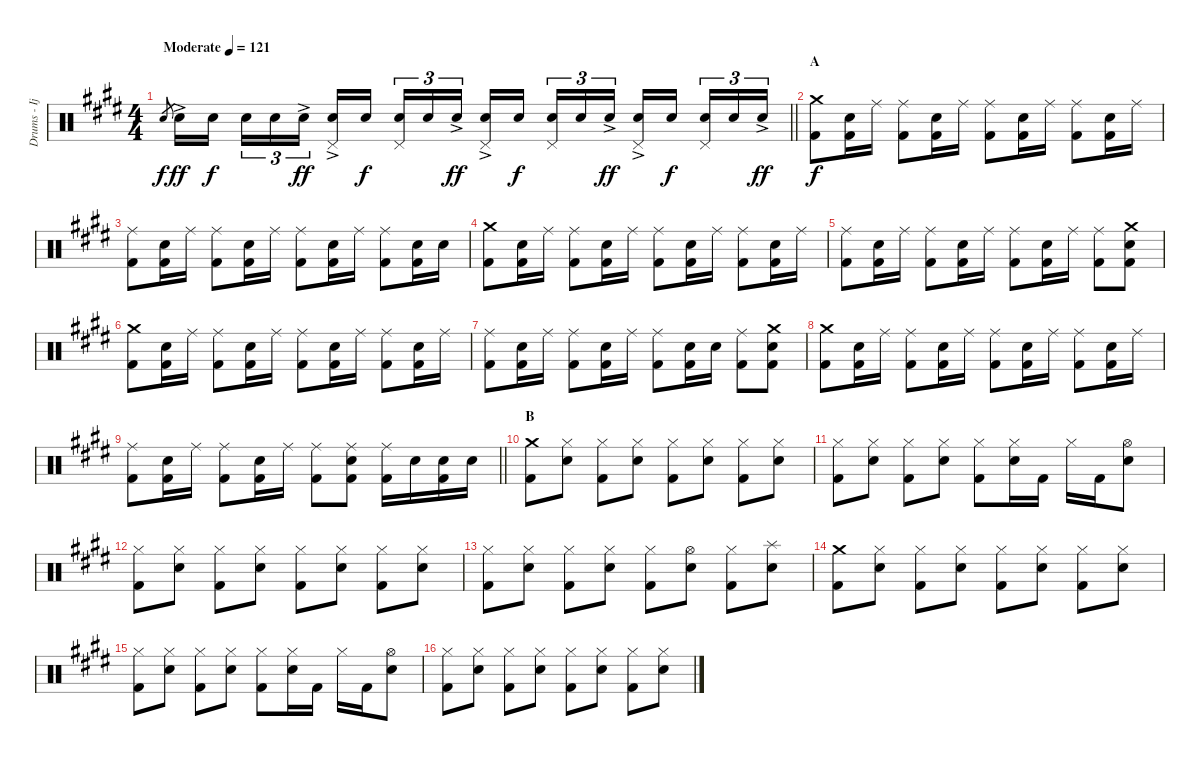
\track ("Drums - Ijichi Kiyoshi" "Drums - Ij") {instrument percussion}
\staff {score}
\articulation defaults
\ts (4 4)
\tempo (121 "Moderate")
\clef neutral
\barLineRight lightlight
\ks e "Electric Snare (hit)".8{gr dy f} "Electric Snare (hit)"{ac}.16{dy ff} "Electric Snare (hit)".16{dy f beam splitsecondary} "Electric Snare (hit)".16{tu (3 2)} "Electric Snare (hit)".16{tu (3 2)} "Electric Snare (hit)"{ac}.16{tu (3 2) dy ff}
("Electric Snare (hit)"{ac} "Pedal Hi-Hat (hit)").16 "Electric Snare (hit)".16{dy f beam splitsecondary} ("Electric Snare (hit)" "Pedal Hi-Hat (hit)").16{tu (3 2)} "Electric Snare (hit)".16{tu (3 2)} "Electric Snare (hit)"{ac}.16{tu (3 2) dy ff} ("Electric Snare (hit)"{ac} "Pedal Hi-Hat (hit)").16 "Electric Snare (hit)".16{dy f beam splitsecondary} ("Electric Snare (hit)" "Pedal Hi-Hat (hit)").16{tu (3 2)} "Electric Snare (hit)".16{tu (3 2)} "Electric Snare (hit)"{ac}.16{tu (3 2) dy ff} ("Electric Snare (hit)"{ac} "Pedal Hi-Hat (hit)").16 "Electric Snare (hit)".16{dy f beam splitsecondary} ("Electric Snare (hit)" "Pedal Hi-Hat (hit)").16{tu (3 2)} "Electric Snare (hit)".16{tu (3 2)} "Electric Snare (hit)"{ac}.16{tu (3 2) dy ff} |
\section ("" "A")
("Crash medium (hit)" "Kick (hit) 2").8{dy f} ("Electric Snare (hit)" "Kick (hit) 2").16 "Ride (middle)".16 ("Ride (middle)" "Kick (hit) 2").8 ("Electric Snare (hit)" "Kick (hit) 2").16 "Ride (middle)".16 ("Ride (middle)" "Kick (hit) 2").8 ("Electric Snare (hit)" "Kick (hit) 2").16 "Ride (middle)".16 ("Ride (middle)" "Kick (hit) 2").8 ("Electric Snare (hit)" "Kick (hit) 2").16 "Ride (middle)".16 |
("Ride (middle)" "Kick (hit) 2").8 ("Electric Snare (hit)" "Kick (hit) 2").16 "Ride (middle)".16 ("Ride (middle)" "Kick (hit) 2").8 ("Electric Snare (hit)" "Kick (hit) 2").16 "Ride (middle)".16 ("Ride (middle)" "Kick (hit) 2").8 ("Electric Snare (hit)" "Kick (hit) 2").16 "Ride (middle)".16 ("Ride (middle)" "Kick (hit) 2").8 ("Electric Snare (hit)" "Kick (hit) 2").16 "Electric Snare (hit)".16 |
("Crash medium (hit)" "Kick (hit) 2").8 ("Electric Snare (hit)" "Kick (hit) 2").16 "Ride (middle)".16 ("Ride (middle)" "Kick (hit) 2").8 ("Electric Snare (hit)" "Kick (hit) 2").16 "Ride (middle)".16 ("Ride (middle)" "Kick (hit) 2").8 ("Electric Snare (hit)" "Kick (hit) 2").16 "Ride (middle)".16 ("Ride (middle)" "Kick (hit) 2").8 ("Electric Snare (hit)" "Kick (hit) 2").16 "Ride (middle)".16 |
("Ride (middle)" "Kick (hit) 2").8 ("Electric Snare (hit)" "Kick (hit) 2").16 "Ride (middle)".16 ("Ride (middle)" "Kick (hit) 2").8 ("Electric Snare (hit)" "Kick (hit) 2").16 "Ride (middle)".16 ("Ride (middle)" "Kick (hit) 2").8 ("Electric Snare (hit)" "Kick (hit) 2").16 "Ride (middle)".16 ("Ride (middle)" "Kick (hit) 2").8 ("Crash medium (hit)" "Electric Snare (hit)" "Kick (hit) 2").8 |
("Crash medium (hit)" "Kick (hit) 2").8 ("Electric Snare (hit)" "Kick (hit) 2").16 "Ride (middle)".16 ("Ride (middle)" "Kick (hit) 2").8 ("Electric Snare (hit)" "Kick (hit) 2").16 "Ride (middle)".16 ("Ride (middle)" "Kick (hit) 2").8 ("Electric Snare (hit)" "Kick (hit) 2").16 "Ride (middle)".16 ("Ride (middle)" "Kick (hit) 2").8 ("Electric Snare (hit)" "Kick (hit) 2").16 "Ride (middle)".16 |
("Ride (middle)" "Kick (hit) 2").8 ("Electric Snare (hit)" "Kick (hit) 2").16 "Ride (middle)".16 ("Ride (middle)" "Kick (hit) 2").8 ("Electric Snare (hit)" "Kick (hit) 2").16 "Ride (middle)".16 ("Ride (middle)" "Kick (hit) 2").8 ("Electric Snare (hit)" "Kick (hit) 2").16 "Electric Snare (hit)".16 ("Ride (middle)" "Kick (hit) 2").8 ("Crash medium (hit)" "Electric Snare (hit)" "Kick (hit) 2").8 |
("Crash medium (hit)" "Kick (hit) 2").8 ("Electric Snare (hit)" "Kick (hit) 2").16 "Ride (middle)".16 ("Ride (middle)" "Kick (hit) 2").8 ("Electric Snare (hit)" "Kick (hit) 2").16 "Ride (middle)".16 ("Ride (middle)" "Kick (hit) 2").8 ("Electric Snare (hit)" "Kick (hit) 2").16 "Ride (middle)".16 ("Ride (middle)" "Kick (hit) 2").8 ("Electric Snare (hit)" "Kick (hit) 2").16 "Ride (middle)".16 |
\barLineRight lightlight
("Ride (middle)" "Kick (hit) 2").8 ("Electric Snare (hit)" "Kick (hit) 2").16 "Ride (middle)".16 ("Ride (middle)" "Kick (hit) 2").8 ("Electric Snare (hit)" "Kick (hit) 2").16 "Ride (middle)".16 ("Ride (middle)" "Kick (hit) 2").8 ("Ride (middle)" "Electric Snare (hit)" "Kick (hit) 2").8 ("Ride (middle)" "Kick (hit) 2").16 "Electric Snare (hit)".16 ("Electric Snare (hit)" "Kick (hit) 2").16 "Electric Snare (hit)".16 |
\section ("" "B")
("Crash medium (hit)" "Kick (hit) 2").8 ("Hi-Hat (closed)" "Electric Snare (hit)").8 ("Hi-Hat (closed)" "Kick (hit) 2").8 ("Hi-Hat (closed)" "Electric Snare (hit)").8 ("Hi-Hat (closed)" "Kick (hit) 2").8 ("Hi-Hat (closed)" "Electric Snare (hit)").8 ("Hi-Hat (closed)" "Kick (hit) 2").8 ("Hi-Hat (closed)" "Electric Snare (hit)").8 |
("Hi-Hat (closed)" "Kick (hit) 2").8 ("Hi-Hat (closed)" "Electric Snare (hit)").8 ("Hi-Hat (closed)" "Kick (hit) 2").8 ("Hi-Hat (closed)" "Electric Snare (hit)").8 ("Hi-Hat (closed)" "Kick (hit) 2").8 ("Hi-Hat (closed)" "Electric Snare (hit)").16 "Kick (hit) 2".16 "Hi-Hat (closed)".16 "Kick (hit) 2".16 ("Hi-Hat (open)" "Electric Snare (hit)").8 |
("Hi-Hat (closed)" "Kick (hit) 2").8 ("Hi-Hat (closed)" "Electric Snare (hit)").8 ("Hi-Hat (closed)" "Kick (hit) 2").8 ("Hi-Hat (closed)" "Electric Snare (hit)").8 ("Hi-Hat (closed)" "Kick (hit) 2").8 ("Hi-Hat (closed)" "Electric Snare (hit)").8 ("Hi-Hat (closed)" "Kick (hit) 2").8 ("Hi-Hat (closed)" "Electric Snare (hit)").8 |
("Hi-Hat (closed)" "Kick (hit) 2").8 ("Hi-Hat (closed)" "Electric Snare (hit)").8 ("Hi-Hat (closed)" "Kick (hit) 2").8 ("Hi-Hat (closed)" "Electric Snare (hit)").8 ("Hi-Hat (closed)" "Kick (hit) 2").8 ("Hi-Hat (open)" "Electric Snare (hit)").8 ("Hi-Hat (closed)" "Kick (hit) 2").8 ("Splash (hit)" "Electric Snare (hit)").8 |
("Crash medium (hit)" "Kick (hit) 2").8 ("Hi-Hat (closed)" "Electric Snare (hit)").8 ("Hi-Hat (closed)" "Kick (hit) 2").8 ("Hi-Hat (closed)" "Electric Snare (hit)").8 ("Hi-Hat (closed)" "Kick (hit) 2").8 ("Hi-Hat (closed)" "Electric Snare (hit)").8 ("Hi-Hat (closed)" "Kick (hit) 2").8 ("Hi-Hat (closed)" "Electric Snare (hit)").8 |
("Hi-Hat (closed)" "Kick (hit) 2").8 ("Hi-Hat (closed)" "Electric Snare (hit)").8 ("Hi-Hat (closed)" "Kick (hit) 2").8 ("Hi-Hat (closed)" "Electric Snare (hit)").8 ("Hi-Hat (closed)" "Kick (hit) 2").8 ("Hi-Hat (closed)" "Electric Snare (hit)").16 "Kick (hit) 2".16 "Hi-Hat (closed)".16 "Kick (hit) 2".16 ("Hi-Hat (open)" "Electric Snare (hit)").8 |
("Hi-Hat (closed)" "Kick (hit) 2").8 ("Hi-Hat (closed)" "Electric Snare (hit)").8 ("Hi-Hat (closed)" "Kick (hit) 2").8 ("Hi-Hat (closed)" "Electric Snare (hit)").8 ("Hi-Hat (closed)" "Kick (hit) 2").8 ("Hi-Hat (closed)" "Electric Snare (hit)").8 ("Hi-Hat (closed)" "Kick (hit) 2").8 ("Hi-Hat (closed)" "Electric Snare (hit)").8
